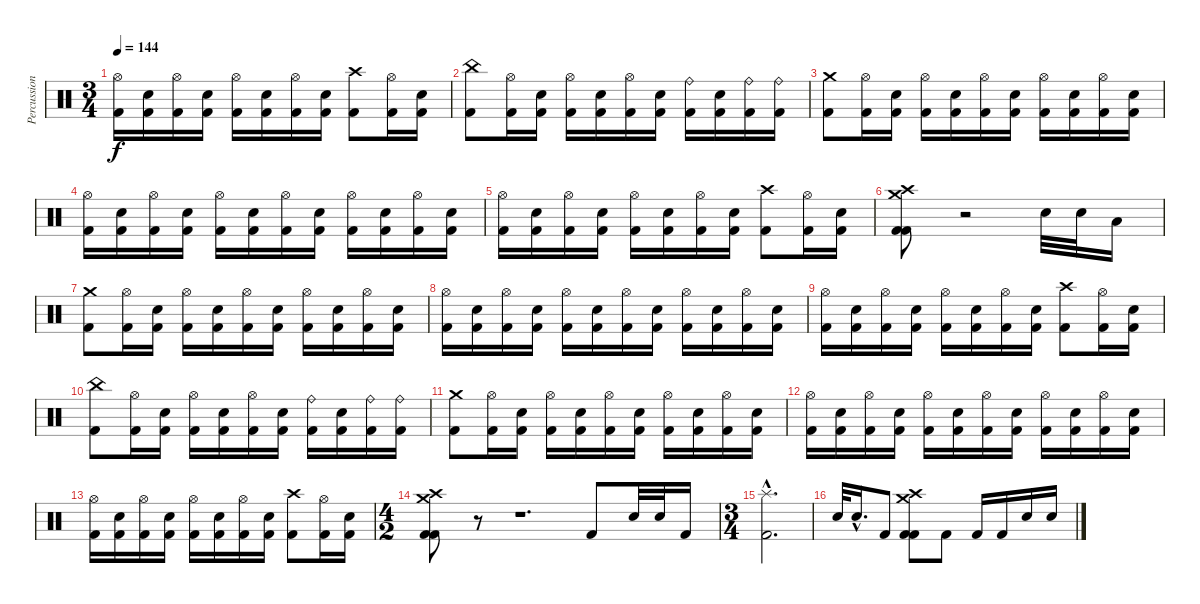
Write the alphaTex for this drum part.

\track ("Percussion" "Percussion") {instrument percussion}
\staff {score}
\articulation defaults
\ts (3 4)
\tempo 144
\clef neutral
\ks c
("Hi-Hat (open)" "Kick (hit) 2").16{dy f} ("Electric Snare (hit)" "Kick (hit) 2").16 ("Hi-Hat (open)" "Kick (hit) 2").16 ("Electric Snare (hit)" "Kick (hit) 2").16 ("Hi-Hat (open)" "Kick (hit) 2").16 ("Electric Snare (hit)" "Kick (hit) 2").16 ("Hi-Hat (open)" "Kick (hit) 2").16 ("Electric Snare (hit)" "Kick (hit) 2").16 ("Crash high (hit)" "Kick (hit) 2").8 ("Hi-Hat (open)" "Kick (hit) 2").16 ("Electric Snare (hit)" "Kick (hit) 2").16 |
("China (hit)" "Kick (hit) 2").8 ("Hi-Hat (open)" "Kick (hit) 2").16 ("Electric Snare (hit)" "Kick (hit) 2").16 ("Hi-Hat (open)" "Kick (hit) 2").16 ("Electric Snare (hit)" "Kick (hit) 2").16 ("Hi-Hat (open)" "Kick (hit) 2").16 ("Electric Snare (hit)" "Kick (hit) 2").16 ("Ride (bell)" "Kick (hit) 2").16 ("Electric Snare (hit)" "Kick (hit) 2").16 ("Ride (bell)" "Kick (hit) 2").16 ("Ride (bell)" "Kick (hit) 2").16 |
("Crash medium (hit)" "Kick (hit) 2").8 ("Hi-Hat (open)" "Kick (hit) 2").16 ("Electric Snare (hit)" "Kick (hit) 2").16 ("Hi-Hat (open)" "Kick (hit) 2").16 ("Electric Snare (hit)" "Kick (hit) 2").16 ("Hi-Hat (open)" "Kick (hit) 2").16 ("Electric Snare (hit)" "Kick (hit) 2").16 ("Hi-Hat (open)" "Kick (hit) 2").16 ("Electric Snare (hit)" "Kick (hit) 2").16 ("Hi-Hat (open)" "Kick (hit) 2").16 ("Electric Snare (hit)" "Kick (hit) 2").16 |
("Hi-Hat (open)" "Kick (hit) 2").16 ("Electric Snare (hit)" "Kick (hit) 2").16 ("Hi-Hat (open)" "Kick (hit) 2").16 ("Electric Snare (hit)" "Kick (hit) 2").16 ("Hi-Hat (open)" "Kick (hit) 2").16 ("Electric Snare (hit)" "Kick (hit) 2").16 ("Hi-Hat (open)" "Kick (hit) 2").16 ("Electric Snare (hit)" "Kick (hit) 2").16 ("Hi-Hat (open)" "Kick (hit) 2").16 ("Electric Snare (hit)" "Kick (hit) 2").16 ("Hi-Hat (open)" "Kick (hit) 2").16 ("Electric Snare (hit)" "Kick (hit) 2").16 |
("Hi-Hat (open)" "Kick (hit) 2").16 ("Electric Snare (hit)" "Kick (hit) 2").16 ("Hi-Hat (open)" "Kick (hit) 2").16 ("Electric Snare (hit)" "Kick (hit) 2").16 ("Hi-Hat (open)" "Kick (hit) 2").16 ("Electric Snare (hit)" "Kick (hit) 2").16 ("Hi-Hat (open)" "Kick (hit) 2").16 ("Electric Snare (hit)" "Kick (hit) 2").16 ("Crash high (hit)" "Kick (hit) 2").8 ("Hi-Hat (open)" "Kick (hit) 2").16 ("Electric Snare (hit)" "Kick (hit) 2").16 |
("Crash high (hit)" "Crash medium (hit)" "Kick (hit) 2" "Kick (hit) 2").8 r.2 "Electric Snare (hit)".32 "Electric Snare (hit)".32 "Low Tom (hit)".16 |
("Crash medium (hit)" "Kick (hit) 2").8 ("Hi-Hat (open)" "Kick (hit) 2").16 ("Electric Snare (hit)" "Kick (hit) 2").16 ("Hi-Hat (open)" "Kick (hit) 2").16 ("Electric Snare (hit)" "Kick (hit) 2").16 ("Hi-Hat (open)" "Kick (hit) 2").16 ("Electric Snare (hit)" "Kick (hit) 2").16 ("Hi-Hat (open)" "Kick (hit) 2").16 ("Electric Snare (hit)" "Kick (hit) 2").16 ("Hi-Hat (open)" "Kick (hit) 2").16 ("Electric Snare (hit)" "Kick (hit) 2").16 |
("Hi-Hat (open)" "Kick (hit) 2").16 ("Electric Snare (hit)" "Kick (hit) 2").16 ("Hi-Hat (open)" "Kick (hit) 2").16 ("Electric Snare (hit)" "Kick (hit) 2").16 ("Hi-Hat (open)" "Kick (hit) 2").16 ("Electric Snare (hit)" "Kick (hit) 2").16 ("Hi-Hat (open)" "Kick (hit) 2").16 ("Electric Snare (hit)" "Kick (hit) 2").16 ("Hi-Hat (open)" "Kick (hit) 2").16 ("Electric Snare (hit)" "Kick (hit) 2").16 ("Hi-Hat (open)" "Kick (hit) 2").16 ("Electric Snare (hit)" "Kick (hit) 2").16 |
("Hi-Hat (open)" "Kick (hit) 2").16 ("Electric Snare (hit)" "Kick (hit) 2").16 ("Hi-Hat (open)" "Kick (hit) 2").16 ("Electric Snare (hit)" "Kick (hit) 2").16 ("Hi-Hat (open)" "Kick (hit) 2").16 ("Electric Snare (hit)" "Kick (hit) 2").16 ("Hi-Hat (open)" "Kick (hit) 2").16 ("Electric Snare (hit)" "Kick (hit) 2").16 ("Crash high (hit)" "Kick (hit) 2").8 ("Hi-Hat (open)" "Kick (hit) 2").16 ("Electric Snare (hit)" "Kick (hit) 2").16 |
("China (hit)" "Kick (hit) 2").8 ("Hi-Hat (open)" "Kick (hit) 2").16 ("Electric Snare (hit)" "Kick (hit) 2").16 ("Hi-Hat (open)" "Kick (hit) 2").16 ("Electric Snare (hit)" "Kick (hit) 2").16 ("Hi-Hat (open)" "Kick (hit) 2").16 ("Electric Snare (hit)" "Kick (hit) 2").16 ("Ride (bell)" "Kick (hit) 2").16 ("Electric Snare (hit)" "Kick (hit) 2").16 ("Ride (bell)" "Kick (hit) 2").16 ("Ride (bell)" "Kick (hit) 2").16 |
("Crash medium (hit)" "Kick (hit) 2").8 ("Hi-Hat (open)" "Kick (hit) 2").16 ("Electric Snare (hit)" "Kick (hit) 2").16 ("Hi-Hat (open)" "Kick (hit) 2").16 ("Electric Snare (hit)" "Kick (hit) 2").16 ("Hi-Hat (open)" "Kick (hit) 2").16 ("Electric Snare (hit)" "Kick (hit) 2").16 ("Hi-Hat (open)" "Kick (hit) 2").16 ("Electric Snare (hit)" "Kick (hit) 2").16 ("Hi-Hat (open)" "Kick (hit) 2").16 ("Electric Snare (hit)" "Kick (hit) 2").16 |
("Hi-Hat (open)" "Kick (hit) 2").16 ("Electric Snare (hit)" "Kick (hit) 2").16 ("Hi-Hat (open)" "Kick (hit) 2").16 ("Electric Snare (hit)" "Kick (hit) 2").16 ("Hi-Hat (open)" "Kick (hit) 2").16 ("Electric Snare (hit)" "Kick (hit) 2").16 ("Hi-Hat (open)" "Kick (hit) 2").16 ("Electric Snare (hit)" "Kick (hit) 2").16 ("Hi-Hat (open)" "Kick (hit) 2").16 ("Electric Snare (hit)" "Kick (hit) 2").16 ("Hi-Hat (open)" "Kick (hit) 2").16 ("Electric Snare (hit)" "Kick (hit) 2").16 |
("Hi-Hat (open)" "Kick (hit) 2").16 ("Electric Snare (hit)" "Kick (hit) 2").16 ("Hi-Hat (open)" "Kick (hit) 2").16 ("Electric Snare (hit)" "Kick (hit) 2").16 ("Hi-Hat (open)" "Kick (hit) 2").16 ("Electric Snare (hit)" "Kick (hit) 2").16 ("Hi-Hat (open)" "Kick (hit) 2").16 ("Electric Snare (hit)" "Kick (hit) 2").16 ("Crash high (hit)" "Kick (hit) 2").8 ("Hi-Hat (open)" "Kick (hit) 2").16 ("Electric Snare (hit)" "Kick (hit) 2").16 |
\ts (4 2)
("Crash high (hit)" "Crash medium (hit)" "Kick (hit) 2" "Kick (hit) 2").8 r.8 r.1{d} "Kick (hit) 2".8 "Electric Snare (hit)".32 "Electric Snare (hit)".32 "Kick (hit) 2".16 |
\ts (3 4)
("Splash (hit)"{hac} "Kick (hit) 2"{hac}).2{d balance 8} |
"Snare (hit) 2".32 "Snare (hit) 2"{hac}.16{d} "Kick (hit) 2".8 ("Crash medium (hit)" "Crash high (hit)" "Kick (hit) 2" "Kick (hit) 2").8 "Kick (hit) 2".8 "Kick (hit) 2".16 "Kick (hit) 2".16 "Snare (hit) 2".16 "Snare (hit) 2".16
